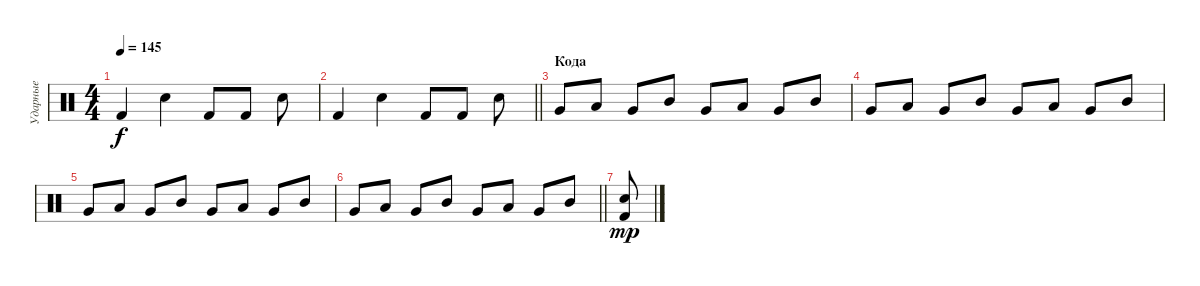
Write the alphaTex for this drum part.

\track ("Ударные" "Ударные") {instrument percussion}
\staff {score}
\articulation defaults
\ts (4 4)
\tempo 145
\clef neutral
\ks c "Kick (hit) 2".4{dy f} "Snare (hit) 2".4 "Kick (hit) 2".8 "Kick (hit) 2".8 "Snare (hit) 2".8
|
\barLineRight lightlight "Kick (hit) 2".4 "Snare (hit) 2".4 "Kick (hit) 2".8 "Kick (hit) 2".8 "Snare (hit) 2".8
|
\section ("" "Кода")
"Very Low Tom (hit)".8 "Low Tom (hit)".8 "Very Low Tom (hit)".8 "Mid Tom (hit)".8 "Very Low Tom (hit)".8 "Low Tom (hit)".8 "Very Low Tom (hit)".8 "Mid Tom (hit)".8 |
"Very Low Tom (hit)".8 "Low Tom (hit)".8 "Very Low Tom (hit)".8 "Mid Tom (hit)".8 "Very Low Tom (hit)".8 "Low Tom (hit)".8 "Very Low Tom (hit)".8 "Mid Tom (hit)".8 |
"Very Low Tom (hit)".8 "Low Tom (hit)".8 "Very Low Tom (hit)".8 "Mid Tom (hit)".8 "Very Low Tom (hit)".8 "Low Tom (hit)".8 "Very Low Tom (hit)".8 "Mid Tom (hit)".8 |
\barLineRight lightlight "Very Low Tom (hit)".8 "Low Tom (hit)".8 "Very Low Tom (hit)".8 "Mid Tom (hit)".8 "Very Low Tom (hit)".8 "Low Tom (hit)".8 "Very Low Tom (hit)".8 "Mid Tom (hit)".8
|
("Snare (hit) 2" "Kick (hit) 2").8{dy mp}
